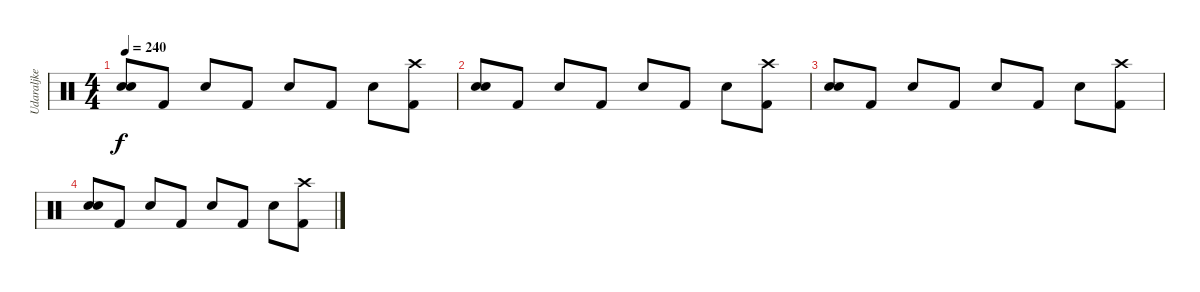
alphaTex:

\track ("Udaraljke" "Udaraljke") {instrument percussion}
\staff {score}
\articulation defaults
\ts (4 4)
\tempo 240
\clef neutral
\ks c
("Snare (hit)"{x} "Snare (hit) 2").8{dy f} "Kick (hit) 2".8 "Snare (hit) 2".8 "Kick (hit) 2".8 "Snare (hit) 2".8 "Kick (hit) 2".8 "Snare (hit) 2".8 ("Kick (hit) 2" "Crash high (hit)").8 |
("Snare (hit)"{x} "Snare (hit) 2").8 "Kick (hit) 2".8 "Snare (hit) 2".8 "Kick (hit) 2".8 "Snare (hit) 2".8 "Kick (hit) 2".8 "Snare (hit) 2".8 ("Kick (hit) 2" "Crash high (hit)").8 |
("Snare (hit)"{x} "Snare (hit) 2").8 "Kick (hit) 2".8 "Snare (hit) 2".8 "Kick (hit) 2".8 "Snare (hit) 2".8 "Kick (hit) 2".8 "Snare (hit) 2".8 ("Kick (hit) 2" "Crash high (hit)").8 |
("Snare (hit)"{x} "Snare (hit) 2").8 "Kick (hit) 2".8 "Snare (hit) 2".8 "Kick (hit) 2".8 "Snare (hit) 2".8 "Kick (hit) 2".8 "Snare (hit) 2".8 ("Kick (hit) 2" "Crash high (hit)").8
